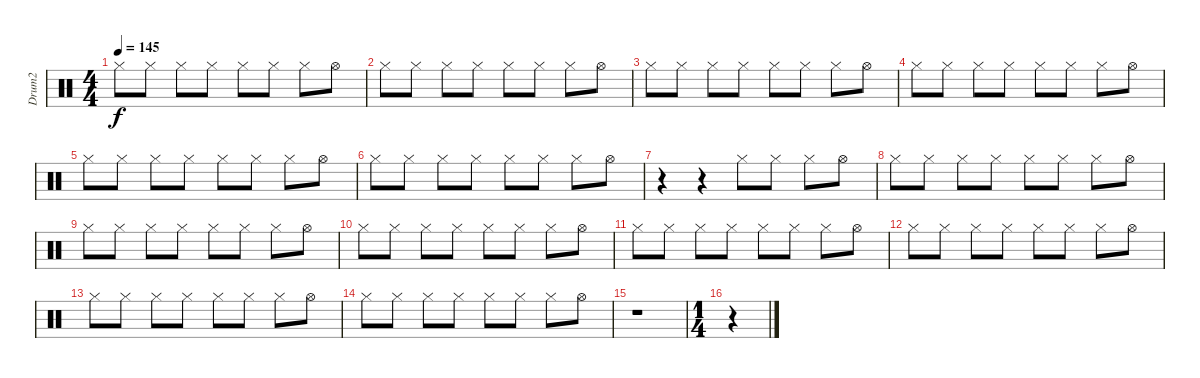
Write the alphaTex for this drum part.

\track ("Drum2" "Drum2") {instrument percussion}
\staff {score}
\articulation defaults
\ts (4 4)
\tempo 145
\clef neutral
\ks c "Hi-Hat (closed)".8{dy f} "Hi-Hat (closed)".8 "Hi-Hat (closed)".8 "Hi-Hat (closed)".8 "Hi-Hat (closed)".8 "Hi-Hat (closed)".8 "Hi-Hat (closed)".8 "Hi-Hat (open)".8
|
"Hi-Hat (closed)".8 "Hi-Hat (closed)".8 "Hi-Hat (closed)".8 "Hi-Hat (closed)".8 "Hi-Hat (closed)".8 "Hi-Hat (closed)".8 "Hi-Hat (closed)".8 "Hi-Hat (open)".8 |
"Hi-Hat (closed)".8 "Hi-Hat (closed)".8 "Hi-Hat (closed)".8 "Hi-Hat (closed)".8 "Hi-Hat (closed)".8 "Hi-Hat (closed)".8 "Hi-Hat (closed)".8 "Hi-Hat (open)".8 |
"Hi-Hat (closed)".8 "Hi-Hat (closed)".8 "Hi-Hat (closed)".8 "Hi-Hat (closed)".8 "Hi-Hat (closed)".8 "Hi-Hat (closed)".8 "Hi-Hat (closed)".8 "Hi-Hat (open)".8 |
"Hi-Hat (closed)".8 "Hi-Hat (closed)".8 "Hi-Hat (closed)".8 "Hi-Hat (closed)".8 "Hi-Hat (closed)".8 "Hi-Hat (closed)".8 "Hi-Hat (closed)".8 "Hi-Hat (open)".8 |
"Hi-Hat (closed)".8 "Hi-Hat (closed)".8 "Hi-Hat (closed)".8 "Hi-Hat (closed)".8 "Hi-Hat (closed)".8 "Hi-Hat (closed)".8 "Hi-Hat (closed)".8 "Hi-Hat (open)".8 |
r.4 r.4 "Hi-Hat (closed)".8 "Hi-Hat (closed)".8 "Hi-Hat (closed)".8 "Hi-Hat (open)".8 |
"Hi-Hat (closed)".8 "Hi-Hat (closed)".8 "Hi-Hat (closed)".8 "Hi-Hat (closed)".8 "Hi-Hat (closed)".8 "Hi-Hat (closed)".8 "Hi-Hat (closed)".8 "Hi-Hat (open)".8 |
"Hi-Hat (closed)".8 "Hi-Hat (closed)".8 "Hi-Hat (closed)".8 "Hi-Hat (closed)".8 "Hi-Hat (closed)".8 "Hi-Hat (closed)".8 "Hi-Hat (closed)".8 "Hi-Hat (open)".8 |
"Hi-Hat (closed)".8 "Hi-Hat (closed)".8 "Hi-Hat (closed)".8 "Hi-Hat (closed)".8 "Hi-Hat (closed)".8 "Hi-Hat (closed)".8 "Hi-Hat (closed)".8 "Hi-Hat (open)".8 |
"Hi-Hat (closed)".8 "Hi-Hat (closed)".8 "Hi-Hat (closed)".8 "Hi-Hat (closed)".8 "Hi-Hat (closed)".8 "Hi-Hat (closed)".8 "Hi-Hat (closed)".8 "Hi-Hat (open)".8 |
"Hi-Hat (closed)".8 "Hi-Hat (closed)".8 "Hi-Hat (closed)".8 "Hi-Hat (closed)".8 "Hi-Hat (closed)".8 "Hi-Hat (closed)".8 "Hi-Hat (closed)".8 "Hi-Hat (open)".8 |
"Hi-Hat (closed)".8 "Hi-Hat (closed)".8 "Hi-Hat (closed)".8 "Hi-Hat (closed)".8 "Hi-Hat (closed)".8 "Hi-Hat (closed)".8 "Hi-Hat (closed)".8 "Hi-Hat (open)".8 |
"Hi-Hat (closed)".8 "Hi-Hat (closed)".8 "Hi-Hat (closed)".8 "Hi-Hat (closed)".8 "Hi-Hat (closed)".8 "Hi-Hat (closed)".8 "Hi-Hat (closed)".8 "Hi-Hat (open)".8 |
r.1 |
\ts (1 4)
r.4
